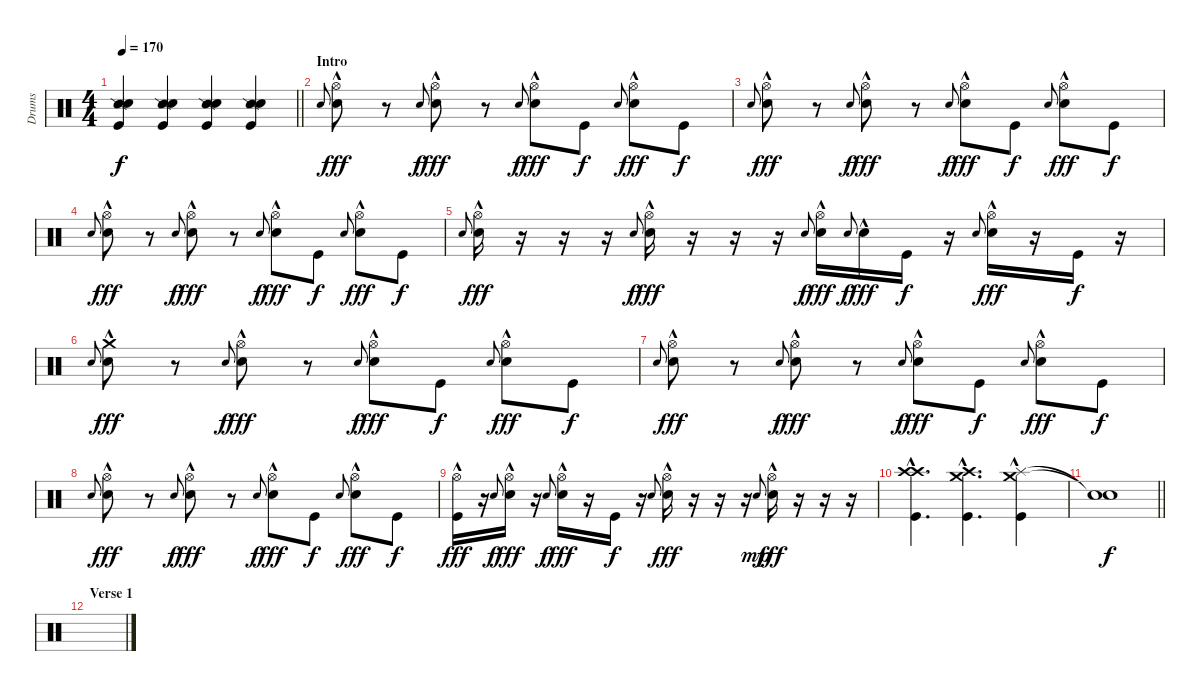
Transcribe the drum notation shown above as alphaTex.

\track ("Drums" "Drums") {instrument percussion}
\staff {score}
\articulation defaults
\ts (4 4)
\tempo 170
\clef neutral
\barLineRight lightlight
\ks c
("Snare (side stick) 2" "Hand Clap (hit)" "Kick (hit)").4{dy f} ("Snare (side stick) 2" "Hand Clap (hit)" "Kick (hit)").4 ("Snare (side stick) 2" "Hand Clap (hit)" "Kick (hit)").4 ("Snare (side stick) 2" "Hand Clap (hit)" "Kick (hit)").4 |
\section ("" "Intro")
"Electric Snare (hit)"{sl}.8{gr onbeat} ("Hi-Hat (open)"{hac} "Electric Snare (hit)"{hac}).8{dy fff} r.8 "Electric Snare (hit)"{sl}.8{gr onbeat dy f} ("Hi-Hat (open)"{hac} "Electric Snare (hit)"{hac}).8{dy fff} r.8 "Electric Snare (hit)"{sl}.8{gr onbeat dy f} ("Hi-Hat (open)"{hac} "Electric Snare (hit)"{hac}).8{dy fff} "Kick (hit)".8{dy f} "Electric Snare (hit)"{sl}.8{gr onbeat} ("Hi-Hat (open)"{hac} "Electric Snare (hit)"{hac}).8{dy fff} "Kick (hit)".8{dy f} |
"Electric Snare (hit)"{sl}.8{gr onbeat} ("Hi-Hat (open)"{hac} "Electric Snare (hit)"{hac}).8{dy fff} r.8 "Electric Snare (hit)"{sl}.8{gr onbeat dy f} ("Hi-Hat (open)"{hac} "Electric Snare (hit)"{hac}).8{dy fff} r.8 "Electric Snare (hit)"{sl}.8{gr onbeat dy f} ("Hi-Hat (open)"{hac} "Electric Snare (hit)"{hac}).8{dy fff} "Kick (hit)".8{dy f} "Electric Snare (hit)"{sl}.8{gr onbeat} ("Hi-Hat (open)"{hac} "Electric Snare (hit)"{hac}).8{dy fff} "Kick (hit)".8{dy f} |
"Electric Snare (hit)"{sl}.8{gr onbeat} ("Hi-Hat (open)"{hac} "Electric Snare (hit)"{hac}).8{dy fff} r.8 "Electric Snare (hit)"{sl}.8{gr onbeat dy f} ("Hi-Hat (open)"{hac} "Electric Snare (hit)"{hac}).8{dy fff} r.8 "Electric Snare (hit)"{sl}.8{gr onbeat dy f} ("Hi-Hat (open)"{hac} "Electric Snare (hit)"{hac}).8{dy fff} "Kick (hit)".8{dy f} "Electric Snare (hit)"{sl}.8{gr onbeat} ("Hi-Hat (open)"{hac} "Electric Snare (hit)"{hac}).8{dy fff} "Kick (hit)".8{dy f} |
"Electric Snare (hit)"{sl}.8{gr onbeat} ("Hi-Hat (open)"{hac} "Electric Snare (hit)"{hac}).16{dy fff} r.16 r.16 r.16 "Electric Snare (hit)"{sl}.8{gr onbeat dy f} ("Hi-Hat (open)"{hac} "Electric Snare (hit)"{hac}).16{dy fff} r.16 r.16 r.16 "Electric Snare (hit)"{sl}.8{gr onbeat dy f} ("Hi-Hat (open)"{hac} "Electric Snare (hit)"{hac}).16{dy fff} "Electric Snare (hit)"{sl}.8{gr onbeat dy f} "Electric Snare (hit)"{hac}.16{dy fff} "Kick (hit)".16{dy f} r.16 "Electric Snare (hit)"{sl}.8{gr onbeat} ("Hi-Hat (open)"{hac} "Electric Snare (hit)"{hac}).16{dy fff} r.16 "Kick (hit)".16{dy f} r.16 |
"Electric Snare (hit)"{sl}.8{gr onbeat} ("Crash medium (hit)"{hac} "Electric Snare (hit)"{hac}).8{dy fff} r.8 "Electric Snare (hit)"{sl}.8{gr onbeat dy f} ("Hi-Hat (open)"{hac} "Electric Snare (hit)"{hac}).8{dy fff} r.8 "Electric Snare (hit)"{sl}.8{gr onbeat dy f} ("Hi-Hat (open)"{hac} "Electric Snare (hit)"{hac}).8{dy fff} "Kick (hit)".8{dy f} "Electric Snare (hit)"{sl}.8{gr onbeat} ("Hi-Hat (open)"{hac} "Electric Snare (hit)"{hac}).8{dy fff} "Kick (hit)".8{dy f} |
"Electric Snare (hit)"{sl}.8{gr onbeat} ("Hi-Hat (open)"{hac} "Electric Snare (hit)"{hac}).8{dy fff} r.8 "Electric Snare (hit)"{sl}.8{gr onbeat dy f} ("Hi-Hat (open)"{hac} "Electric Snare (hit)"{hac}).8{dy fff} r.8 "Electric Snare (hit)"{sl}.8{gr onbeat dy f} ("Hi-Hat (open)"{hac} "Electric Snare (hit)"{hac}).8{dy fff} "Kick (hit)".8{dy f} "Electric Snare (hit)"{sl}.8{gr onbeat} ("Hi-Hat (open)"{hac} "Electric Snare (hit)"{hac}).8{dy fff} "Kick (hit)".8{dy f} |
"Electric Snare (hit)"{sl}.8{gr onbeat} ("Hi-Hat (open)"{hac} "Electric Snare (hit)"{hac}).8{dy fff} r.8 "Electric Snare (hit)"{sl}.8{gr onbeat dy f} ("Hi-Hat (open)"{hac} "Electric Snare (hit)"{hac}).8{dy fff} r.8 "Electric Snare (hit)"{sl}.8{gr onbeat dy f} ("Hi-Hat (open)"{hac} "Electric Snare (hit)"{hac}).8{dy fff} "Kick (hit)".8{dy f} "Electric Snare (hit)"{sl}.8{gr onbeat} ("Hi-Hat (open)"{hac} "Electric Snare (hit)"{hac}).8{dy fff} "Kick (hit)".8{dy f} |
("Hi-Hat (open)"{hac} "Kick (hit)").16{dy fff} r.16 "Electric Snare (hit)"{sl}.8{gr onbeat dy f} ("Hi-Hat (open)" "Electric Snare (hit)"{hac}).16{dy fff} r.16 "Electric Snare (hit)"{sl}.8{gr onbeat dy f} ("Hi-Hat (open)"{hac} "Electric Snare (hit)"{hac}).16{dy fff} r.16 "Kick (hit)".16{dy f} r.16 "Electric Snare (hit)"{sl}.8{gr onbeat} ("Hi-Hat (open)"{hac} "Electric Snare (hit)"{hac}).16{dy fff} r.16 r.16 r.16 "Electric Snare (hit)"{sl}.8{gr onbeat dy mp} ("Hi-Hat (open)"{hac} "Electric Snare (hit)"{hac}).16{dy fff} r.16 r.16 r.16 |
("Crash high (hit)"{hac} "Crash high (hit)"{hac} "Kick (hit)"{hac}).4{d} ("Crash high (hit)"{hac} "Crash medium (hit)"{hac} "Kick (hit)"{hac}).4{d} ("Crash medium (hit)"{hac} "Splash (hit)"{hac} "Kick (hit)"{hac}).4 |
\barLineRight lightlight
("Snare (hit)"{t} "Snare (hit)"{t}).1{dy f} |
\section ("" "Verse 1")
